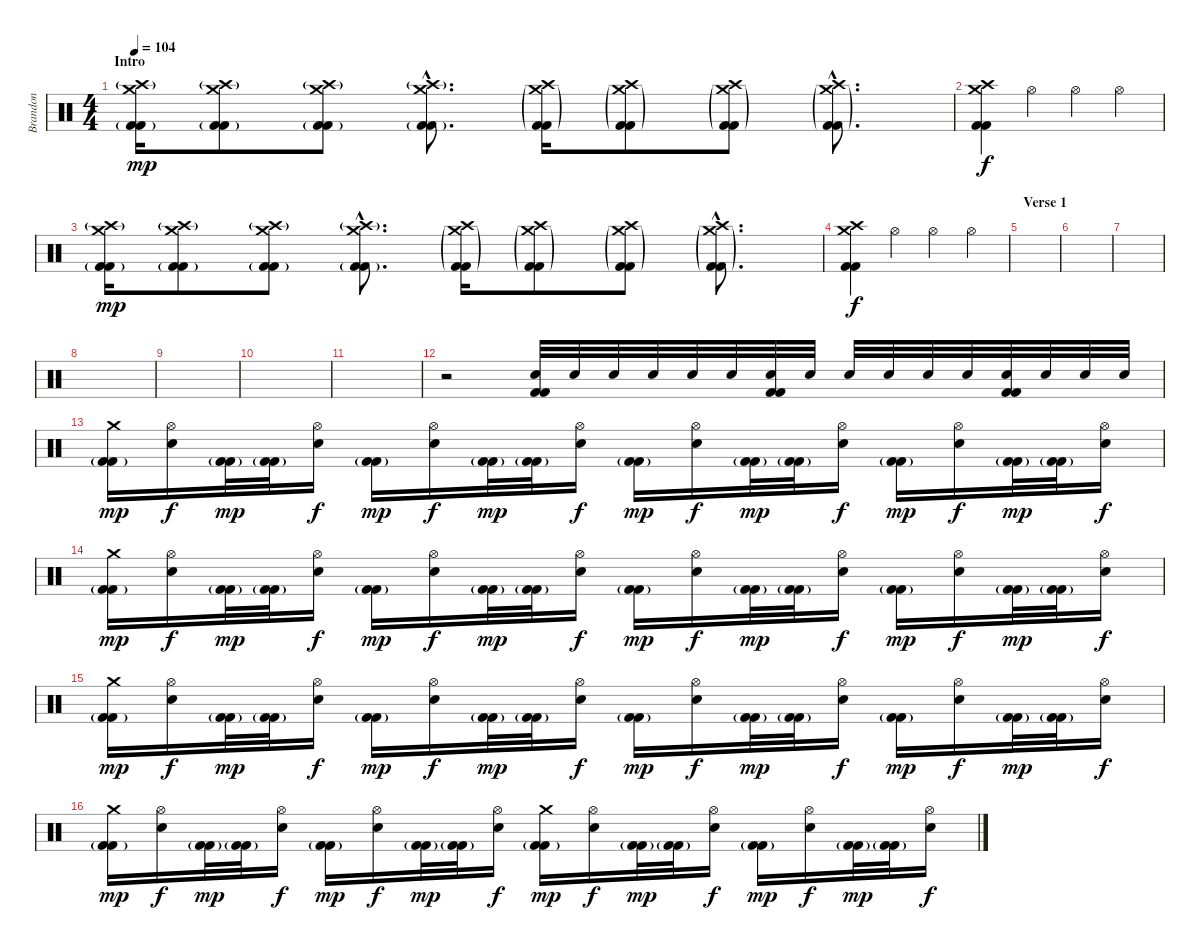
\track ("Brandon" "Brandon") {instrument percussion}
\staff {score}
\articulation defaults
\ts (4 4)
\section ("" "Intro")
\tempo 104
\clef neutral
\ks c
("Crash medium (hit)" "Crash high (hit)"{g} "Kick (hit) 2"{g} "Kick (hit) 2").16{dy mp} ("Crash medium (hit)" "Crash high (hit)"{g} "Kick (hit) 2"{g} "Kick (hit) 2").8 ("Crash medium (hit)" "Crash high (hit)"{g} "Kick (hit) 2"{g} "Kick (hit) 2").8 ("Crash medium (hit)"{hac} "Crash high (hit)"{g hac} "Kick (hit) 2"{g hac} "Kick (hit) 2"{hac}).8{d} ("Crash high (hit)" "Crash medium (hit)"{g} "Kick (hit) 2"{g} "Kick (hit) 2").16 ("Crash high (hit)" "Crash medium (hit)"{g} "Kick (hit) 2"{g} "Kick (hit) 2").8 ("Crash high (hit)" "Crash medium (hit)"{g} "Kick (hit) 2"{g} "Kick (hit) 2").8 ("Crash high (hit)"{hac} "Crash medium (hit)"{g hac} "Kick (hit) 2"{g hac} "Kick (hit) 2"{hac}).8{d} |
("Crash high (hit)" "Crash medium (hit)" "Kick (hit) 2" "Kick (hit) 2").4{dy f} "Hi-Hat (open)".4 "Hi-Hat (open)".4 "Hi-Hat (open)".4 |
("Crash medium (hit)" "Crash high (hit)"{g} "Kick (hit) 2"{g} "Kick (hit) 2").16{dy mp} ("Crash medium (hit)" "Crash high (hit)"{g} "Kick (hit) 2"{g} "Kick (hit) 2").8 ("Crash medium (hit)" "Crash high (hit)"{g} "Kick (hit) 2"{g} "Kick (hit) 2").8 ("Crash medium (hit)"{hac} "Crash high (hit)"{g hac} "Kick (hit) 2"{g hac} "Kick (hit) 2"{hac}).8{d} ("Crash high (hit)" "Crash medium (hit)"{g} "Kick (hit) 2"{g} "Kick (hit) 2").16 ("Crash high (hit)" "Crash medium (hit)"{g} "Kick (hit) 2"{g} "Kick (hit) 2").8 ("Crash high (hit)" "Crash medium (hit)"{g} "Kick (hit) 2"{g} "Kick (hit) 2").8 ("Crash high (hit)"{hac} "Crash medium (hit)"{g hac} "Kick (hit) 2"{g hac} "Kick (hit) 2"{hac}).8{d} |
("Crash high (hit)" "Crash medium (hit)" "Kick (hit) 2" "Kick (hit) 2").4{dy f} "Hi-Hat (open)".4 "Hi-Hat (open)".4 "Hi-Hat (open)".4 |
\section ("" "Verse 1")
|
|
|
|
|
|
|
r.2 ("Electric Snare (hit)" "Kick (hit) 2" "Kick (hit) 2").32 "Electric Snare (hit)".32 "Electric Snare (hit)".32 "Electric Snare (hit)".32 "Electric Snare (hit)".32 "Electric Snare (hit)".32 ("Electric Snare (hit)" "Kick (hit) 2" "Kick (hit) 2").32 "Electric Snare (hit)".32 "Electric Snare (hit)".32 "Electric Snare (hit)".32 "Electric Snare (hit)".32 "Electric Snare (hit)".32 ("Electric Snare (hit)" "Kick (hit) 2" "Kick (hit) 2").32 "Electric Snare (hit)".32 "Electric Snare (hit)".32 "Electric Snare (hit)".32 |
("Crash medium (hit)" "Kick (hit) 2"{g} "Kick (hit) 2").16{dy mp} ("Hi-Hat (open)" "Electric Snare (hit)").16{dy f} ("Kick (hit) 2"{g} "Kick (hit) 2").32{dy mp} ("Kick (hit) 2"{g} "Kick (hit) 2").32 ("Hi-Hat (open)" "Electric Snare (hit)").16{dy f} ("Kick (hit) 2"{g} "Kick (hit) 2").16{dy mp} ("Hi-Hat (open)" "Electric Snare (hit)").16{dy f} ("Kick (hit) 2"{g} "Kick (hit) 2").32{dy mp} ("Kick (hit) 2"{g} "Kick (hit) 2").32 ("Hi-Hat (open)" "Electric Snare (hit)").16{dy f} ("Kick (hit) 2"{g} "Kick (hit) 2").16{dy mp} ("Hi-Hat (open)" "Electric Snare (hit)").16{dy f} ("Kick (hit) 2"{g} "Kick (hit) 2").32{dy mp} ("Kick (hit) 2"{g} "Kick (hit) 2").32 ("Hi-Hat (open)" "Electric Snare (hit)").16{dy f} ("Kick (hit) 2"{g} "Kick (hit) 2").16{dy mp} ("Hi-Hat (open)" "Electric Snare (hit)").16{dy f} ("Kick (hit) 2"{g} "Kick (hit) 2").32{dy mp} ("Kick (hit) 2"{g} "Kick (hit) 2").32 ("Hi-Hat (open)" "Electric Snare (hit)").16{dy f} |
("Crash medium (hit)" "Kick (hit) 2"{g} "Kick (hit) 2").16{dy mp} ("Hi-Hat (open)" "Electric Snare (hit)").16{dy f} ("Kick (hit) 2"{g} "Kick (hit) 2").32{dy mp} ("Kick (hit) 2"{g} "Kick (hit) 2").32 ("Hi-Hat (open)" "Electric Snare (hit)").16{dy f} ("Kick (hit) 2"{g} "Kick (hit) 2").16{dy mp} ("Hi-Hat (open)" "Electric Snare (hit)").16{dy f} ("Kick (hit) 2"{g} "Kick (hit) 2").32{dy mp} ("Kick (hit) 2"{g} "Kick (hit) 2").32 ("Hi-Hat (open)" "Electric Snare (hit)").16{dy f} ("Kick (hit) 2"{g} "Kick (hit) 2").16{dy mp} ("Hi-Hat (open)" "Electric Snare (hit)").16{dy f} ("Kick (hit) 2"{g} "Kick (hit) 2").32{dy mp} ("Kick (hit) 2"{g} "Kick (hit) 2").32 ("Hi-Hat (open)" "Electric Snare (hit)").16{dy f} ("Kick (hit) 2"{g} "Kick (hit) 2").16{dy mp} ("Hi-Hat (open)" "Electric Snare (hit)").16{dy f} ("Kick (hit) 2"{g} "Kick (hit) 2").32{dy mp} ("Kick (hit) 2"{g} "Kick (hit) 2").32 ("Hi-Hat (open)" "Electric Snare (hit)").16{dy f} |
("Crash medium (hit)" "Kick (hit) 2"{g} "Kick (hit) 2").16{dy mp} ("Hi-Hat (open)" "Electric Snare (hit)").16{dy f} ("Kick (hit) 2"{g} "Kick (hit) 2").32{dy mp} ("Kick (hit) 2"{g} "Kick (hit) 2").32 ("Hi-Hat (open)" "Electric Snare (hit)").16{dy f} ("Kick (hit) 2"{g} "Kick (hit) 2").16{dy mp} ("Hi-Hat (open)" "Electric Snare (hit)").16{dy f} ("Kick (hit) 2"{g} "Kick (hit) 2").32{dy mp} ("Kick (hit) 2"{g} "Kick (hit) 2").32 ("Hi-Hat (open)" "Electric Snare (hit)").16{dy f} ("Kick (hit) 2"{g} "Kick (hit) 2").16{dy mp} ("Hi-Hat (open)" "Electric Snare (hit)").16{dy f} ("Kick (hit) 2"{g} "Kick (hit) 2").32{dy mp} ("Kick (hit) 2"{g} "Kick (hit) 2").32 ("Hi-Hat (open)" "Electric Snare (hit)").16{dy f} ("Kick (hit) 2"{g} "Kick (hit) 2").16{dy mp} ("Hi-Hat (open)" "Electric Snare (hit)").16{dy f} ("Kick (hit) 2"{g} "Kick (hit) 2").32{dy mp} ("Kick (hit) 2"{g} "Kick (hit) 2").32 ("Hi-Hat (open)" "Electric Snare (hit)").16{dy f} |
("Crash medium (hit)" "Kick (hit) 2"{g} "Kick (hit) 2").16{dy mp} ("Hi-Hat (open)" "Electric Snare (hit)").16{dy f} ("Kick (hit) 2"{g} "Kick (hit) 2").32{dy mp} ("Kick (hit) 2"{g} "Kick (hit) 2").32 ("Hi-Hat (open)" "Electric Snare (hit)").16{dy f} ("Kick (hit) 2"{g} "Kick (hit) 2").16{dy mp} ("Hi-Hat (open)" "Electric Snare (hit)").16{dy f} ("Kick (hit) 2"{g} "Kick (hit) 2").32{dy mp} ("Kick (hit) 2"{g} "Kick (hit) 2").32 ("Hi-Hat (open)" "Electric Snare (hit)").16{dy f} ("Crash medium (hit)" "Kick (hit) 2"{g} "Kick (hit) 2").16{dy mp} ("Hi-Hat (open)" "Electric Snare (hit)").16{dy f} ("Kick (hit) 2"{g} "Kick (hit) 2").32{dy mp} ("Kick (hit) 2"{g} "Kick (hit) 2").32 ("Hi-Hat (open)" "Electric Snare (hit)").16{dy f} ("Kick (hit) 2"{g} "Kick (hit) 2").16{dy mp} ("Hi-Hat (open)" "Electric Snare (hit)").16{dy f} ("Kick (hit) 2"{g} "Kick (hit) 2").32{dy mp} ("Kick (hit) 2"{g} "Kick (hit) 2").32 ("Hi-Hat (open)" "Electric Snare (hit)").16{dy f}
